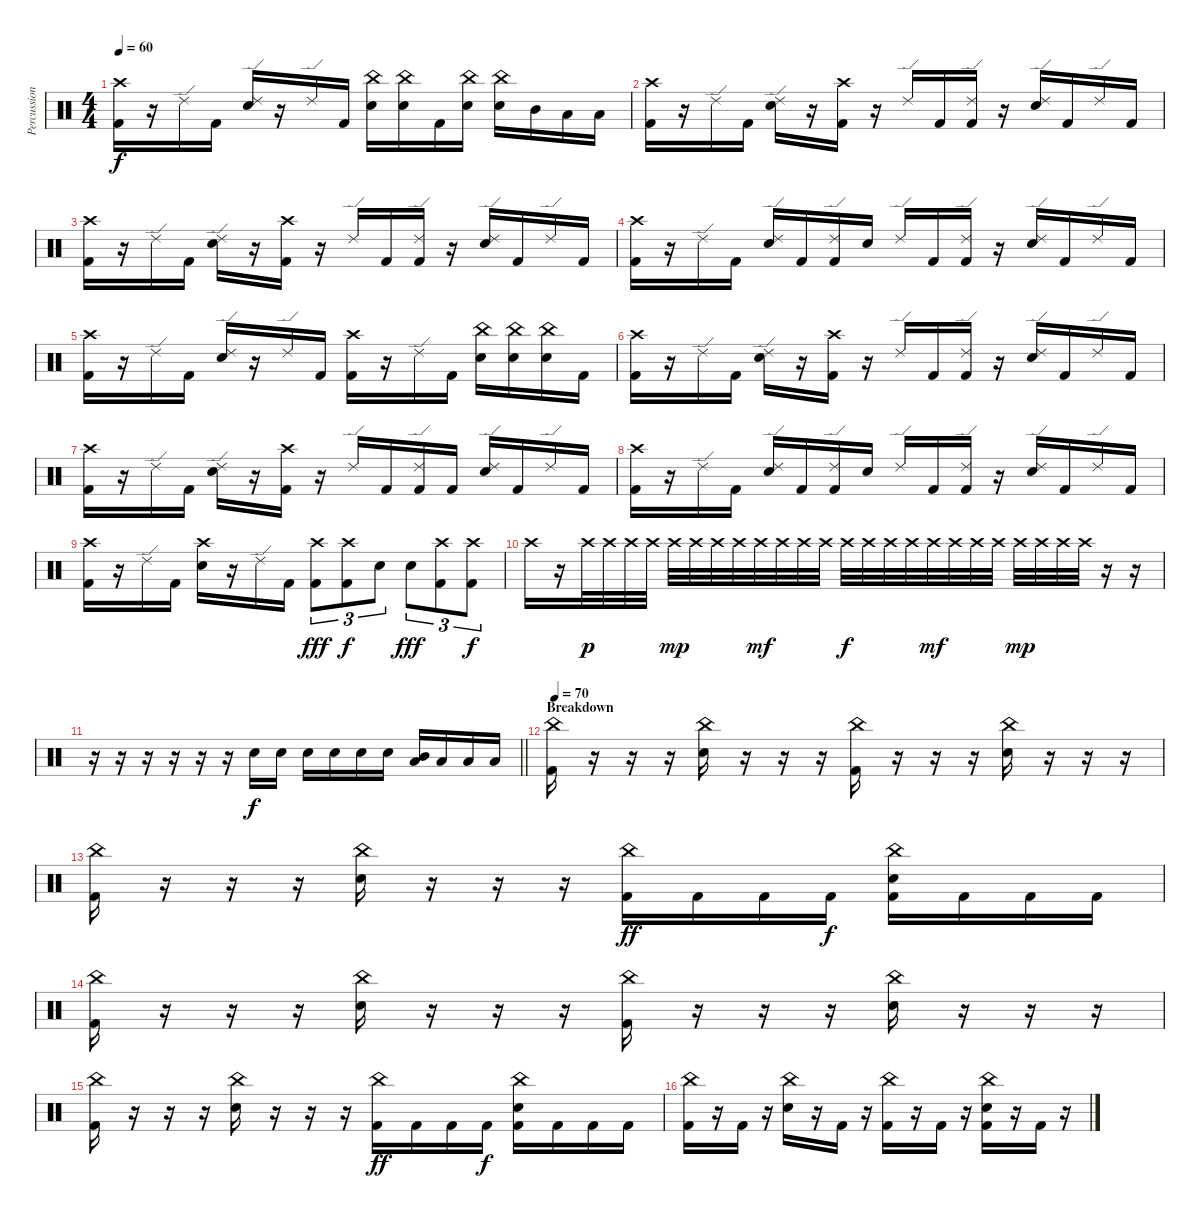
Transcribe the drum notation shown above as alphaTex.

\track ("Percussion" "Percussion") {instrument percussion}
\staff {score}
\articulation defaults
\ts (4 4)
\tempo 60
\clef neutral
\ks c
("Crash high (hit)" "Kick (hit) 2").16{dy f} r.16 "Ride (edge) 2".16 "Kick (hit) 2".16 ("Ride (edge) 2" "Electric Snare (hit)").16 r.16 "Ride (edge) 2".16 "Kick (hit) 2".16 ("China (hit)" "Electric Snare (hit)").16 ("China (hit)" "Electric Snare (hit)").16 "Kick (hit) 2".16 ("China (hit)" "Electric Snare (hit)").16 ("China (hit)" "Electric Snare (hit)").16 "Mid Tom (hit)".16 "Low Tom (hit)".16 "Low Floor Tom (hit)".16 |
("Crash high (hit)" "Kick (hit) 2").16 r.16 "Ride (edge) 2".16 "Kick (hit) 2".16 ("Ride (edge) 2" "Electric Snare (hit)").16 r.16 ("Crash high (hit)" "Kick (hit) 2").16 r.16 "Ride (edge) 2".16 "Kick (hit) 2".16 ("Ride (edge) 2" "Kick (hit) 2").16 r.16 ("Ride (edge) 2" "Electric Snare (hit)").16 "Kick (hit) 2".16 "Ride (edge) 2".16 "Kick (hit) 2".16 |
("Crash high (hit)" "Kick (hit) 2").16 r.16 "Ride (edge) 2".16 "Kick (hit) 2".16 ("Ride (edge) 2" "Electric Snare (hit)").16 r.16 ("Crash high (hit)" "Kick (hit) 2").16 r.16 "Ride (edge) 2".16 "Kick (hit) 2".16 ("Ride (edge) 2" "Kick (hit) 2").16 r.16 ("Ride (edge) 2" "Electric Snare (hit)").16 "Kick (hit) 2".16 "Ride (edge) 2".16 "Kick (hit) 2".16 |
("Crash high (hit)" "Kick (hit) 2").16 r.16 "Ride (edge) 2".16 "Kick (hit) 2".16 ("Ride (edge) 2" "Electric Snare (hit)").16 "Kick (hit) 2".16 ("Ride (edge) 2" "Kick (hit) 2").16 "Snare (hit) 2".16 "Ride (edge) 2".16 "Kick (hit) 2".16 ("Ride (edge) 2" "Kick (hit) 2").16 r.16 ("Ride (edge) 2" "Electric Snare (hit)").16 "Kick (hit) 2".16 "Ride (edge) 2".16 "Kick (hit) 2".16 |
("Crash high (hit)" "Kick (hit) 2").16 r.16 "Ride (edge) 2".16 "Kick (hit) 2".16 ("Ride (edge) 2" "Electric Snare (hit)").16 r.16 "Ride (edge) 2".16 "Kick (hit) 2".16 ("Crash high (hit)" "Kick (hit) 2").16 r.16 "Ride (edge) 2".16 "Kick (hit) 2".16 ("China (hit)" "Electric Snare (hit)").16 ("China (hit)" "Electric Snare (hit)").16 ("China (hit)" "Electric Snare (hit)").16 "Kick (hit) 2".16 |
("Crash high (hit)" "Kick (hit) 2").16 r.16 "Ride (edge) 2".16 "Kick (hit) 2".16 ("Ride (edge) 2" "Electric Snare (hit)").16 r.16 ("Crash high (hit)" "Kick (hit) 2").16 r.16 "Ride (edge) 2".16 "Kick (hit) 2".16 ("Ride (edge) 2" "Kick (hit) 2").16 r.16 ("Ride (edge) 2" "Electric Snare (hit)").16 "Kick (hit) 2".16 "Ride (edge) 2".16 "Kick (hit) 2".16 |
("Crash high (hit)" "Kick (hit) 2").16 r.16 "Ride (edge) 2".16 "Kick (hit) 2".16 ("Ride (edge) 2" "Electric Snare (hit)").16 r.16 ("Crash high (hit)" "Kick (hit) 2").16 r.16 "Ride (edge) 2".16 "Kick (hit) 2".16 ("Ride (edge) 2" "Kick (hit) 2").16 "Kick (hit) 2".16 ("Ride (edge) 2" "Electric Snare (hit)").16 "Kick (hit) 2".16 "Ride (edge) 2".16 "Kick (hit) 2".16 |
("Crash high (hit)" "Kick (hit) 2").16 r.16 "Ride (edge) 2".16 "Kick (hit) 2".16 ("Ride (edge) 2" "Electric Snare (hit)").16 "Kick (hit) 2".16 ("Ride (edge) 2" "Kick (hit) 2").16 "Snare (hit) 2".16 "Ride (edge) 2".16 "Kick (hit) 2".16 ("Ride (edge) 2" "Kick (hit) 2").16 r.16 ("Ride (edge) 2" "Electric Snare (hit)").16 "Kick (hit) 2".16 "Ride (edge) 2".16 "Kick (hit) 2".16 |
("Crash high (hit)" "Kick (hit) 2").16 r.16 "Ride (edge) 2".16 "Kick (hit) 2".16 ("Crash high (hit)" "Electric Snare (hit)").16 r.16 "Ride (edge) 2".16 "Kick (hit) 2".16 ("Crash high (hit)" "Kick (hit) 2").8{tu (3 2) dy fff} ("Crash high (hit)" "Kick (hit) 2").8{tu (3 2) dy f} "Electric Snare (hit)".8{tu (3 2)} "Electric Snare (hit)".8{tu (3 2) dy fff} ("Crash high (hit)" "Kick (hit) 2").8{tu (3 2)} ("Crash high (hit)" "Kick (hit) 2").8{tu (3 2) dy f} |
"Crash high (hit)".16 r.16 "Crash high (hit)".32{dy p} "Crash high (hit)".32 "Crash high (hit)".32 "Crash high (hit)".32 "Crash high (hit)".32{dy mp} "Crash high (hit)".32 "Crash high (hit)".32 "Crash high (hit)".32 "Crash high (hit)".32{dy mf} "Crash high (hit)".32 "Crash high (hit)".32 "Crash high (hit)".32 "Crash high (hit)".32{dy f} "Crash high (hit)".32 "Crash high (hit)".32 "Crash high (hit)".32 "Crash high (hit)".32{dy mf} "Crash high (hit)".32 "Crash high (hit)".32 "Crash high (hit)".32 "Crash high (hit)".32{dy mp} "Crash high (hit)".32 "Crash high (hit)".32 "Crash high (hit)".32 r.16 r.16 |
\barLineRight lightlight
r.16 r.16 r.16 r.16 r.16 r.16 "Electric Snare (hit)".16{dy f} "Electric Snare (hit)".16 "Electric Snare (hit)".16 "Electric Snare (hit)".16 "Electric Snare (hit)".16 "Electric Snare (hit)".16 ("Mid Tom (hit)" "Low Tom (hit)").16 "Low Tom (hit)".16 "Low Floor Tom (hit)".16 "Low Floor Tom (hit)".16 |
\section ("" "Breakdown")
\tempo 70
("China (hit)" "Kick (hit) 2").16 r.16 r.16 r.16 ("China (hit)" "Electric Snare (hit)").16 r.16 r.16 r.16 ("China (hit)" "Kick (hit) 2").16 r.16 r.16 r.16 ("China (hit)" "Electric Snare (hit)").16 r.16 r.16 r.16 |
("China (hit)" "Kick (hit) 2").16 r.16 r.16 r.16 ("China (hit)" "Electric Snare (hit)").16 r.16 r.16 r.16 ("China (hit)" "Kick (hit) 2").16{dy ff} "Kick (hit) 2".16 "Kick (hit) 2".16 "Kick (hit) 2".16{dy f} ("China (hit)" "Electric Snare (hit)" "Kick (hit) 2").16 "Kick (hit) 2".16 "Kick (hit) 2".16 "Kick (hit) 2".16 |
("China (hit)" "Kick (hit) 2").16 r.16 r.16 r.16 ("China (hit)" "Electric Snare (hit)").16 r.16 r.16 r.16 ("China (hit)" "Kick (hit) 2").16 r.16 r.16 r.16 ("China (hit)" "Electric Snare (hit)").16 r.16 r.16 r.16 |
("China (hit)" "Kick (hit) 2").16 r.16 r.16 r.16 ("China (hit)" "Electric Snare (hit)").16 r.16 r.16 r.16 ("China (hit)" "Kick (hit) 2").16{dy ff} "Kick (hit) 2".16 "Kick (hit) 2".16 "Kick (hit) 2".16{dy f} ("China (hit)" "Electric Snare (hit)" "Kick (hit) 2").16 "Kick (hit) 2".16 "Kick (hit) 2".16 "Kick (hit) 2".16 |
("China (hit)" "Kick (hit) 2").16 r.16 "Kick (hit) 2".16 r.16 ("China (hit)" "Electric Snare (hit)").16 r.16 "Kick (hit) 2".16 r.16 ("China (hit)" "Kick (hit) 2").16 r.16 "Kick (hit) 2".16 r.16 ("China (hit)" "Electric Snare (hit)" "Kick (hit) 2").16 r.16 "Kick (hit) 2".16 r.16
